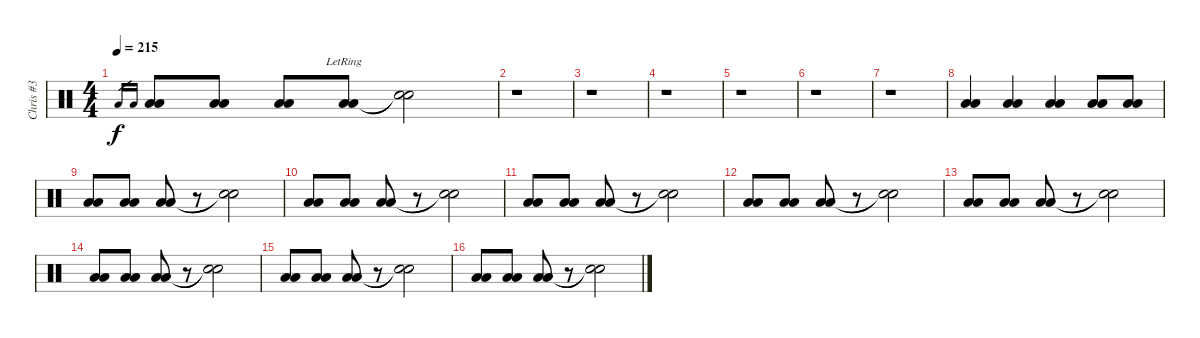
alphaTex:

\track ("Chris #3" "Chris #3") {instrument percussion}
\staff {score}
\articulation defaults
\ts (4 4)
\tempo 215
\clef neutral
\ks c "Low Floor Tom (hit)"{sl}.16{gr dy f} "Low Floor Tom (hit)"{sl}.16{gr}
("Low Floor Tom (hit)" "Low Floor Tom (hit)").8{volume 16} ("Low Floor Tom (hit)" "Low Floor Tom (hit)").8 ("Low Floor Tom (hit)" "Low Floor Tom (hit)").8 ("Low Floor Tom (hit)"{lr} "Low Floor Tom (hit)"{lr}).8 ("Snare (hit)"{t} "Snare (hit)"{t}).2 |
r.1{volume 10} |
r.1 |
r.1 |
r.1 |
r.1 |
r.1 |
("Low Floor Tom (hit)" "Low Floor Tom (hit)").4 ("Low Floor Tom (hit)" "Low Floor Tom (hit)").4 ("Low Floor Tom (hit)" "Low Floor Tom (hit)").4 ("Low Floor Tom (hit)" "Low Floor Tom (hit)").8 ("Low Floor Tom (hit)" "Low Floor Tom (hit)").8 |
("Low Floor Tom (hit)" "Low Floor Tom (hit)").8 ("Low Floor Tom (hit)" "Low Floor Tom (hit)").8 ("Low Floor Tom (hit)" "Low Floor Tom (hit)").8 r.8 ("Snare (hit)"{t} "Snare (hit)"{t}).2 |
("Low Floor Tom (hit)" "Low Floor Tom (hit)").8 ("Low Floor Tom (hit)" "Low Floor Tom (hit)").8 ("Low Floor Tom (hit)" "Low Floor Tom (hit)").8 r.8 ("Snare (hit)"{t} "Snare (hit)"{t}).2 |
("Low Floor Tom (hit)" "Low Floor Tom (hit)").8 ("Low Floor Tom (hit)" "Low Floor Tom (hit)").8 ("Low Floor Tom (hit)" "Low Floor Tom (hit)").8 r.8 ("Snare (hit)"{t} "Snare (hit)"{t}).2 |
("Low Floor Tom (hit)" "Low Floor Tom (hit)").8 ("Low Floor Tom (hit)" "Low Floor Tom (hit)").8 ("Low Floor Tom (hit)" "Low Floor Tom (hit)").8 r.8 ("Snare (hit)"{t} "Snare (hit)"{t}).2 |
("Low Floor Tom (hit)" "Low Floor Tom (hit)").8 ("Low Floor Tom (hit)" "Low Floor Tom (hit)").8 ("Low Floor Tom (hit)" "Low Floor Tom (hit)").8 r.8 ("Snare (hit)"{t} "Snare (hit)"{t}).2 |
("Low Floor Tom (hit)" "Low Floor Tom (hit)").8 ("Low Floor Tom (hit)" "Low Floor Tom (hit)").8 ("Low Floor Tom (hit)" "Low Floor Tom (hit)").8 r.8 ("Snare (hit)"{t} "Snare (hit)"{t}).2 |
("Low Floor Tom (hit)" "Low Floor Tom (hit)").8 ("Low Floor Tom (hit)" "Low Floor Tom (hit)").8 ("Low Floor Tom (hit)" "Low Floor Tom (hit)").8 r.8 ("Snare (hit)"{t} "Snare (hit)"{t}).2 |
("Low Floor Tom (hit)" "Low Floor Tom (hit)").8 ("Low Floor Tom (hit)" "Low Floor Tom (hit)").8 ("Low Floor Tom (hit)" "Low Floor Tom (hit)").8 r.8 ("Snare (hit)"{t} "Snare (hit)"{t}).2
